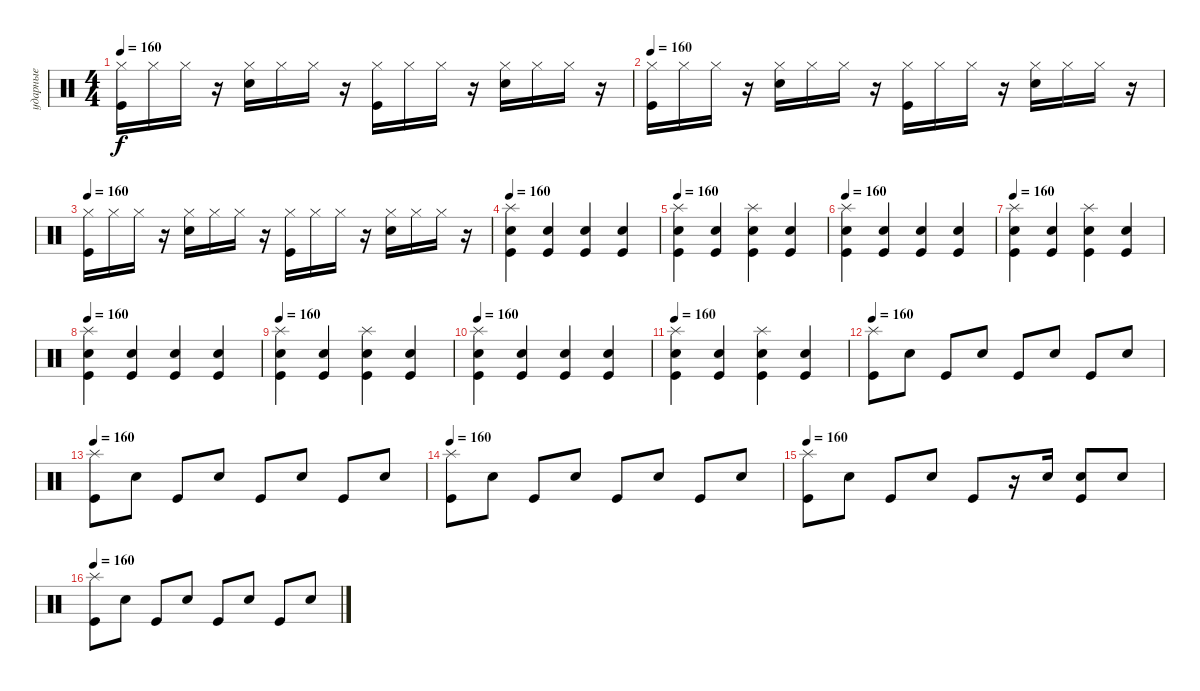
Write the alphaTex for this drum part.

\track ("ударные" "ударные") {instrument percussion}
\staff {score}
\articulation defaults
\ts (4 4)
\tempo 160
\clef neutral
\ks c
("Kick (hit)" "Hi-Hat (closed)").16{dy f} "Hi-Hat (closed)".16 "Hi-Hat (closed)".16 r.16 ("Hi-Hat (closed)" "Electric Snare (hit)").16 "Hi-Hat (closed)".16 "Hi-Hat (closed)".16 r.16 ("Hi-Hat (closed)" "Kick (hit)").16 "Hi-Hat (closed)".16 "Hi-Hat (closed)".16 r.16 ("Hi-Hat (closed)" "Electric Snare (hit)").16 "Hi-Hat (closed)".16 "Hi-Hat (closed)".16 r.16 |
\tempo 160
("Kick (hit)" "Hi-Hat (closed)").16 "Hi-Hat (closed)".16 "Hi-Hat (closed)".16 r.16 ("Hi-Hat (closed)" "Electric Snare (hit)").16 "Hi-Hat (closed)".16 "Hi-Hat (closed)".16 r.16 ("Hi-Hat (closed)" "Kick (hit)").16 "Hi-Hat (closed)".16 "Hi-Hat (closed)".16 r.16 ("Hi-Hat (closed)" "Electric Snare (hit)").16 "Hi-Hat (closed)".16 "Hi-Hat (closed)".16 r.16 |
\tempo 160
("Kick (hit)" "Hi-Hat (closed)").16 "Hi-Hat (closed)".16 "Hi-Hat (closed)".16 r.16 ("Hi-Hat (closed)" "Electric Snare (hit)").16 "Hi-Hat (closed)".16 "Hi-Hat (closed)".16 r.16 ("Hi-Hat (closed)" "Kick (hit)").16 "Hi-Hat (closed)".16 "Hi-Hat (closed)".16 r.16 ("Hi-Hat (closed)" "Electric Snare (hit)").16 "Hi-Hat (closed)".16 "Hi-Hat (closed)".16 r.16 |
\tempo 160
("Kick (hit)" "Splash (hit)" "Electric Snare (hit)").4 ("Kick (hit)" "Electric Snare (hit)").4 ("Kick (hit)" "Electric Snare (hit)").4 ("Kick (hit)" "Electric Snare (hit)").4 |
\tempo 160
("Kick (hit)" "Splash (hit)" "Electric Snare (hit)").4 ("Kick (hit)" "Electric Snare (hit)").4 ("Kick (hit)" "Splash (hit)" "Electric Snare (hit)").4 ("Kick (hit)" "Electric Snare (hit)").4 |
\tempo 160
("Kick (hit)" "Splash (hit)" "Electric Snare (hit)").4 ("Kick (hit)" "Electric Snare (hit)").4 ("Kick (hit)" "Electric Snare (hit)").4 ("Kick (hit)" "Electric Snare (hit)").4 |
\tempo 160
("Kick (hit)" "Splash (hit)" "Electric Snare (hit)").4 ("Kick (hit)" "Electric Snare (hit)").4 ("Kick (hit)" "Splash (hit)" "Electric Snare (hit)").4 ("Kick (hit)" "Electric Snare (hit)").4 |
\tempo 160
("Kick (hit)" "Splash (hit)" "Electric Snare (hit)").4 ("Kick (hit)" "Electric Snare (hit)").4 ("Kick (hit)" "Electric Snare (hit)").4 ("Kick (hit)" "Electric Snare (hit)").4 |
\tempo 160
("Kick (hit)" "Splash (hit)" "Electric Snare (hit)").4 ("Kick (hit)" "Electric Snare (hit)").4 ("Kick (hit)" "Splash (hit)" "Electric Snare (hit)").4 ("Kick (hit)" "Electric Snare (hit)").4 |
\tempo 160
("Kick (hit)" "Splash (hit)" "Electric Snare (hit)").4 ("Kick (hit)" "Electric Snare (hit)").4 ("Kick (hit)" "Electric Snare (hit)").4 ("Kick (hit)" "Electric Snare (hit)").4 |
\tempo 160
("Kick (hit)" "Splash (hit)" "Electric Snare (hit)").4 ("Kick (hit)" "Electric Snare (hit)").4 ("Kick (hit)" "Splash (hit)" "Electric Snare (hit)").4 ("Kick (hit)" "Electric Snare (hit)").4 |
\tempo 160
("Splash (hit)" "Kick (hit)").8 "Electric Snare (hit)".8 "Kick (hit)".8 "Electric Snare (hit)".8 "Kick (hit)".8 "Electric Snare (hit)".8 "Kick (hit)".8 "Electric Snare (hit)".8 |
\tempo 160
("Splash (hit)" "Kick (hit)").8 "Electric Snare (hit)".8 "Kick (hit)".8 "Electric Snare (hit)".8 "Kick (hit)".8 "Electric Snare (hit)".8 "Kick (hit)".8 "Electric Snare (hit)".8 |
\tempo 160
("Splash (hit)" "Kick (hit)").8 "Electric Snare (hit)".8 "Kick (hit)".8 "Electric Snare (hit)".8 "Kick (hit)".8 "Electric Snare (hit)".8 "Kick (hit)".8 "Electric Snare (hit)".8 |
\tempo 160
("Splash (hit)" "Kick (hit)").8 "Electric Snare (hit)".8 "Kick (hit)".8 "Electric Snare (hit)".8 "Kick (hit)".8 r.16 "Electric Snare (hit)".16 ("Electric Snare (hit)" "Kick (hit)").8 "Electric Snare (hit)".8 |
\tempo 160
("Splash (hit)" "Kick (hit)").8 "Electric Snare (hit)".8 "Kick (hit)".8 "Electric Snare (hit)".8 "Kick (hit)".8 "Electric Snare (hit)".8 "Kick (hit)".8 "Electric Snare (hit)".8
